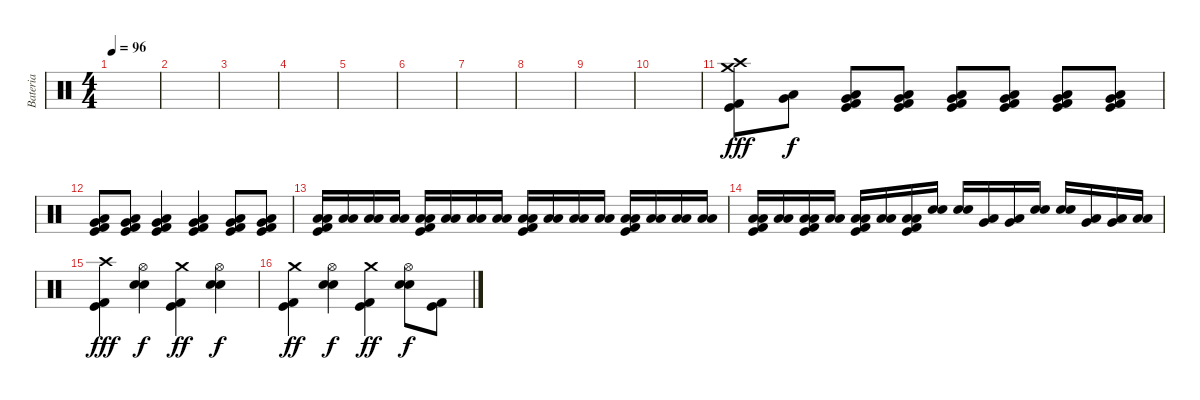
\track ("Bateria" "Bateria") {instrument percussion}
\staff {score}
\articulation defaults
\ts (4 4)
\tempo 96
\clef neutral
\ks c
|
|
|
|
|
|
|
|
|
|
("Crash high (hit)" "Crash medium (hit)" "Kick (hit) 2" "Kick (hit)").8{dy fff} ("Low Tom (hit)" "Very Low Tom (hit)").8{dy f} ("Low Tom (hit)" "Very Low Tom (hit)" "Kick (hit) 2" "Kick (hit)").8 ("Low Tom (hit)" "Very Low Tom (hit)" "Kick (hit) 2" "Kick (hit)").8 ("Low Tom (hit)" "Very Low Tom (hit)" "Kick (hit) 2" "Kick (hit)").8 ("Low Tom (hit)" "Very Low Tom (hit)" "Kick (hit) 2" "Kick (hit)").8 ("Low Tom (hit)" "Very Low Tom (hit)" "Kick (hit) 2" "Kick (hit)").8 ("Low Tom (hit)" "Very Low Tom (hit)" "Kick (hit) 2" "Kick (hit)").8 |
("Low Tom (hit)" "Very Low Tom (hit)" "Kick (hit) 2" "Kick (hit)").8 ("Low Tom (hit)" "Very Low Tom (hit)" "Kick (hit) 2" "Kick (hit)").8 ("Low Tom (hit)" "Very Low Tom (hit)" "Kick (hit) 2" "Kick (hit)").4 ("Low Tom (hit)" "Very Low Tom (hit)" "Kick (hit) 2" "Kick (hit)").4 ("Low Tom (hit)" "Very Low Tom (hit)" "Kick (hit) 2" "Kick (hit)").8 ("Low Tom (hit)" "Very Low Tom (hit)" "Kick (hit) 2" "Kick (hit)").8 |
("Low Tom (hit)" "Low Floor Tom (hit)" "Kick (hit) 2" "Kick (hit)").16 ("Low Tom (hit)" "Low Floor Tom (hit)").16 ("Low Tom (hit)" "Low Floor Tom (hit)").16 ("Low Tom (hit)" "Low Floor Tom (hit)").16 ("Low Tom (hit)" "Low Floor Tom (hit)" "Kick (hit) 2" "Kick (hit)").16 ("Low Tom (hit)" "Low Floor Tom (hit)").16 ("Low Tom (hit)" "Low Floor Tom (hit)").16 ("Low Tom (hit)" "Low Floor Tom (hit)").16 ("Low Tom (hit)" "Low Floor Tom (hit)" "Kick (hit) 2" "Kick (hit)").16 ("Low Tom (hit)" "Low Floor Tom (hit)").16 ("Low Tom (hit)" "Low Floor Tom (hit)").16 ("Low Tom (hit)" "Low Floor Tom (hit)").16 ("Low Tom (hit)" "Low Floor Tom (hit)" "Kick (hit) 2" "Kick (hit)").16 ("Low Tom (hit)" "Low Floor Tom (hit)").16 ("Low Tom (hit)" "Low Floor Tom (hit)").16 ("Low Tom (hit)" "Low Floor Tom (hit)").16 |
("Low Tom (hit)" "Low Floor Tom (hit)" "Kick (hit) 2" "Kick (hit)").16 ("Low Tom (hit)" "Low Floor Tom (hit)").16 ("Low Tom (hit)" "Low Floor Tom (hit)" "Kick (hit) 2" "Kick (hit)").16 ("Low Tom (hit)" "Low Floor Tom (hit)").16 ("Low Tom (hit)" "Low Floor Tom (hit)" "Kick (hit) 2" "Kick (hit)").16 ("Low Tom (hit)" "Low Floor Tom (hit)").16 ("Low Tom (hit)" "Low Floor Tom (hit)" "Kick (hit) 2" "Kick (hit)").16 ("Electric Snare (hit)" "Snare (hit) 2").16 ("Electric Snare (hit)" "Snare (hit) 2").16 ("Low Tom (hit)" "Very Low Tom (hit)").16 ("Low Tom (hit)" "Very Low Tom (hit)").16 ("Electric Snare (hit)" "Snare (hit) 2").16 ("Electric Snare (hit)" "Snare (hit) 2").16 ("Low Tom (hit)" "Very Low Tom (hit)").16 ("Low Tom (hit)" "Very Low Tom (hit)").16 ("Low Tom (hit)" "Low Floor Tom (hit)").16 |
("Crash high (hit)" "Kick (hit) 2" "Kick (hit)").4{dy fff} ("Hi-Hat (open)" "Electric Snare (hit)" "Snare (hit) 2").4{dy f} ("Crash medium (hit)" "Kick (hit) 2" "Kick (hit)").4{dy ff} ("Hi-Hat (open)" "Electric Snare (hit)" "Snare (hit) 2").4{dy f} |
("Crash medium (hit)" "Kick (hit) 2" "Kick (hit)").4{dy ff} ("Hi-Hat (open)" "Electric Snare (hit)" "Snare (hit) 2").4{dy f} ("Crash medium (hit)" "Kick (hit) 2" "Kick (hit)").4{dy ff} ("Hi-Hat (open)" "Electric Snare (hit)" "Snare (hit) 2").8{dy f} ("Kick (hit) 2" "Kick (hit)").8
